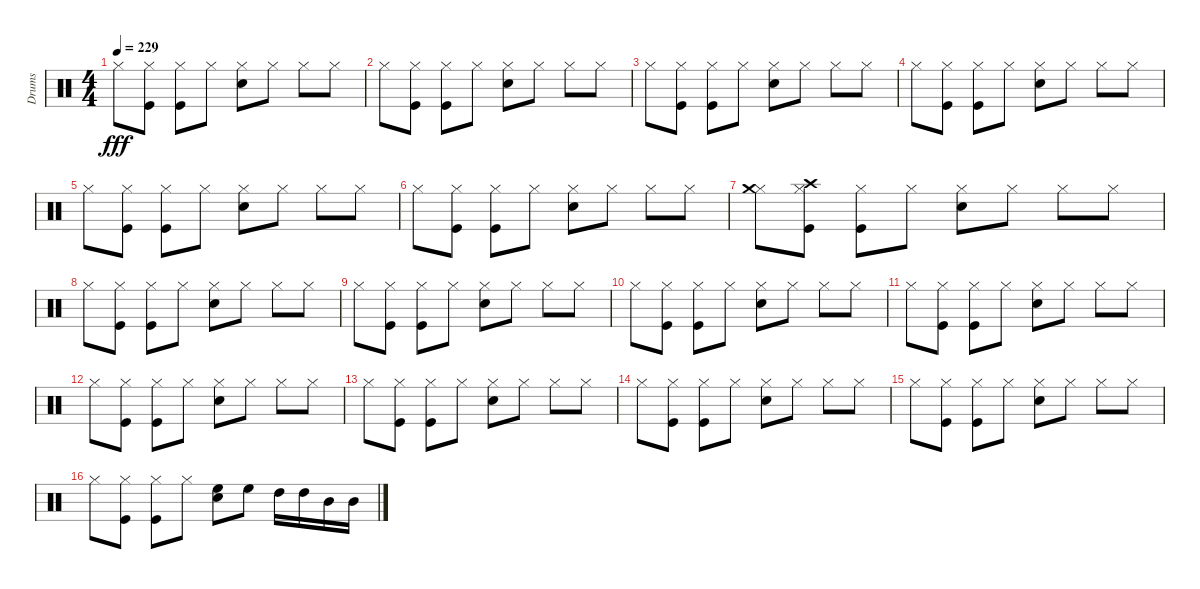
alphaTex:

\track ("Drums" "Drums") {instrument percussion}
\staff {score}
\articulation defaults
\ts (4 4)
\tempo 229
\clef neutral
\ks c "Hi-Hat (closed)".8{dy fff}
("Kick (hit)" "Hi-Hat (closed)").8 ("Hi-Hat (closed)" "Kick (hit)").8 "Hi-Hat (closed)".8 ("Snare (hit) 2" "Hi-Hat (closed)").8 "Hi-Hat (closed)".8 "Hi-Hat (closed)".8 "Hi-Hat (closed)".8 |
"Hi-Hat (closed)".8 ("Kick (hit)" "Hi-Hat (closed)").8 ("Hi-Hat (closed)" "Kick (hit)").8 "Hi-Hat (closed)".8 ("Snare (hit) 2" "Hi-Hat (closed)").8 "Hi-Hat (closed)".8 "Hi-Hat (closed)".8 "Hi-Hat (closed)".8 |
"Hi-Hat (closed)".8 ("Kick (hit)" "Hi-Hat (closed)").8 ("Hi-Hat (closed)" "Kick (hit)").8 "Hi-Hat (closed)".8 ("Snare (hit) 2" "Hi-Hat (closed)").8 "Hi-Hat (closed)".8 "Hi-Hat (closed)".8 "Hi-Hat (closed)".8 |
"Hi-Hat (closed)".8 ("Kick (hit)" "Hi-Hat (closed)").8 ("Hi-Hat (closed)" "Kick (hit)").8 "Hi-Hat (closed)".8 ("Snare (hit) 2" "Hi-Hat (closed)").8 "Hi-Hat (closed)".8 "Hi-Hat (closed)".8 "Hi-Hat (closed)".8 |
"Hi-Hat (closed)".8 ("Kick (hit)" "Hi-Hat (closed)").8 ("Hi-Hat (closed)" "Kick (hit)").8 "Hi-Hat (closed)".8 ("Snare (hit) 2" "Hi-Hat (closed)").8 "Hi-Hat (closed)".8 "Hi-Hat (closed)".8 "Hi-Hat (closed)".8 |
"Hi-Hat (closed)".8 ("Kick (hit)" "Hi-Hat (closed)").8 ("Hi-Hat (closed)" "Kick (hit)").8 "Hi-Hat (closed)".8 ("Snare (hit) 2" "Hi-Hat (closed)").8 "Hi-Hat (closed)".8 "Hi-Hat (closed)".8 "Hi-Hat (closed)".8 |
("Hi-Hat (closed)" "Crash medium (hit)").8 ("Kick (hit)" "Hi-Hat (closed)" "Crash high (hit)").8 ("Hi-Hat (closed)" "Kick (hit)").8 "Hi-Hat (closed)".8 ("Snare (hit) 2" "Hi-Hat (closed)").8 "Hi-Hat (closed)".8 "Hi-Hat (closed)".8 "Hi-Hat (closed)".8 |
"Hi-Hat (closed)".8 ("Kick (hit)" "Hi-Hat (closed)").8 ("Hi-Hat (closed)" "Kick (hit)").8 "Hi-Hat (closed)".8 ("Snare (hit) 2" "Hi-Hat (closed)").8 "Hi-Hat (closed)".8 "Hi-Hat (closed)".8 "Hi-Hat (closed)".8 |
"Hi-Hat (closed)".8 ("Kick (hit)" "Hi-Hat (closed)").8 ("Hi-Hat (closed)" "Kick (hit)").8 "Hi-Hat (closed)".8 ("Snare (hit) 2" "Hi-Hat (closed)").8 "Hi-Hat (closed)".8 "Hi-Hat (closed)".8 "Hi-Hat (closed)".8 |
"Hi-Hat (closed)".8 ("Kick (hit)" "Hi-Hat (closed)").8 ("Hi-Hat (closed)" "Kick (hit)").8 "Hi-Hat (closed)".8 ("Snare (hit) 2" "Hi-Hat (closed)").8 "Hi-Hat (closed)".8 "Hi-Hat (closed)".8 "Hi-Hat (closed)".8 |
"Hi-Hat (closed)".8 ("Kick (hit)" "Hi-Hat (closed)").8 ("Hi-Hat (closed)" "Kick (hit)").8 "Hi-Hat (closed)".8 ("Snare (hit) 2" "Hi-Hat (closed)").8 "Hi-Hat (closed)".8 "Hi-Hat (closed)".8 "Hi-Hat (closed)".8 |
"Hi-Hat (closed)".8 ("Kick (hit)" "Hi-Hat (closed)").8 ("Hi-Hat (closed)" "Kick (hit)").8 "Hi-Hat (closed)".8 ("Snare (hit) 2" "Hi-Hat (closed)").8 "Hi-Hat (closed)".8 "Hi-Hat (closed)".8 "Hi-Hat (closed)".8 |
"Hi-Hat (closed)".8 ("Kick (hit)" "Hi-Hat (closed)").8 ("Hi-Hat (closed)" "Kick (hit)").8 "Hi-Hat (closed)".8 ("Snare (hit) 2" "Hi-Hat (closed)").8 "Hi-Hat (closed)".8 "Hi-Hat (closed)".8 "Hi-Hat (closed)".8 |
"Hi-Hat (closed)".8 ("Kick (hit)" "Hi-Hat (closed)").8 ("Hi-Hat (closed)" "Kick (hit)").8 "Hi-Hat (closed)".8 ("Snare (hit) 2" "Hi-Hat (closed)").8 "Hi-Hat (closed)".8 "Hi-Hat (closed)".8 "Hi-Hat (closed)".8 |
"Hi-Hat (closed)".8 ("Kick (hit)" "Hi-Hat (closed)").8 ("Hi-Hat (closed)" "Kick (hit)").8 "Hi-Hat (closed)".8 ("Snare (hit) 2" "Hi-Hat (closed)").8 "Hi-Hat (closed)".8 "Hi-Hat (closed)".8 "Hi-Hat (closed)".8 |
"Hi-Hat (closed)".8 ("Kick (hit)" "Hi-Hat (closed)").8 ("Hi-Hat (closed)" "Kick (hit)").8 "Hi-Hat (closed)".8 ("High Floor Tom (hit)" "Snare (hit) 2").8 "High Floor Tom (hit)".8 "High Tom (hit)".16 "High Tom (hit)".16 "Mid Tom (hit)".16 "Mid Tom (hit)".16
